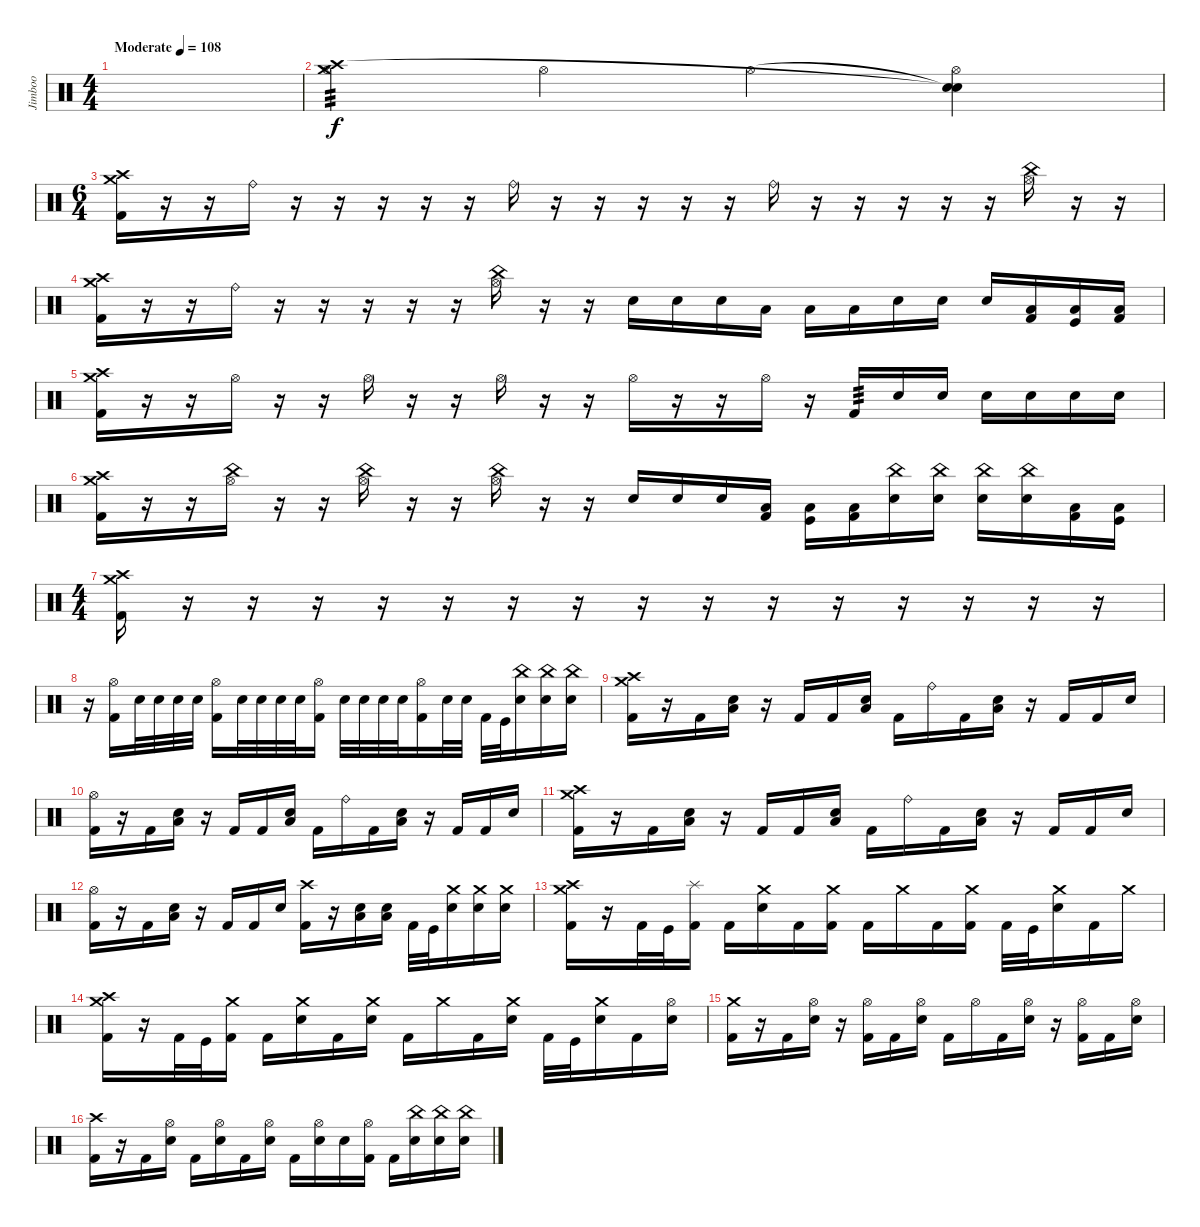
\track ("Jimboo" "Jimboo") {instrument percussion}
\staff
\articulation defaults
\ts (4 4)
\tempo (108 "Moderate")
\clef neutral
\ks c
|
("Crash medium (hit)" "Crash high (hit)" "Hi-Hat (open)").4{tp 3} "Hi-Hat (open)".4 "Hi-Hat (open)".4 ("Snare (hit)"{t} "Snare (hit)"{t} "Hi-Hat (open)").4 |
\ts (6 4)
("Kick (hit) 2" "Crash medium (hit)" "Crash high (hit)").16 r.16 r.16 "Ride (bell)".16 r.16 r.16 r.16 r.16 r.16 "Ride (bell)".16 r.16 r.16 r.16 r.16 r.16 "Ride (bell)".16 r.16 r.16 r.16 r.16 r.16 ("Hi-Hat (open)" "China (hit)").16 r.16 r.16 |
("Kick (hit) 2" "Crash medium (hit)" "Crash high (hit)").16 r.16 r.16 "Ride (bell)".16 r.16 r.16 r.16 r.16 r.16 ("Hi-Hat (open)" "China (hit)").16 r.16 r.16 "Electric Snare (hit)".16 "Electric Snare (hit)".16 "Electric Snare (hit)".16 "Low Tom (hit)".16 "Low Tom (hit)".16 "Low Tom (hit)".16 "Electric Snare (hit)".16 "Electric Snare (hit)".16 "Electric Snare (hit)".16 ("Low Floor Tom (hit)" "Kick (hit) 2").16 ("Low Floor Tom (hit)" "Kick (hit)").16 ("Low Floor Tom (hit)" "Kick (hit) 2").16 |
("Kick (hit) 2" "Crash medium (hit)" "Crash high (hit)").16 r.16 r.16 "Hi-Hat (open)".16 r.16 r.16 "Hi-Hat (open)".16 r.16 r.16 "Hi-Hat (open)".16 r.16 r.16 "Hi-Hat (open)".16 r.16 r.16 "Hi-Hat (open)".16 r.16 "Kick (hit) 2".16{tp 3} "Electric Snare (hit)".16 "Electric Snare (hit)".16 "Electric Snare (hit)".16 "Electric Snare (hit)".16 "Electric Snare (hit)".16 "Electric Snare (hit)".16 |
("Kick (hit) 2" "Crash medium (hit)" "Crash high (hit)").16 r.16 r.16 ("Hi-Hat (open)" "China (hit)").16 r.16 r.16 ("Hi-Hat (open)" "China (hit)").16 r.16 r.16 ("Hi-Hat (open)" "China (hit)").16 r.16 r.16 "Electric Snare (hit)".16 "Electric Snare (hit)".16 "Electric Snare (hit)".16 ("Low Tom (hit)" "Kick (hit) 2").16 ("Low Tom (hit)" "Kick (hit)").16 ("Low Floor Tom (hit)" "Kick (hit) 2").16 ("Electric Snare (hit)" "China (hit)").16 ("Electric Snare (hit)" "China (hit)").16 ("Electric Snare (hit)" "China (hit)").16 ("Electric Snare (hit)" "China (hit)").16 ("Low Tom (hit)" "Kick (hit) 2").16 ("Low Floor Tom (hit)" "Kick (hit)").16 |
\ts (4 4)
("Kick (hit) 2" "Crash medium (hit)" "Crash high (hit)").16 r.16 r.16 r.16 r.16 r.16 r.16 r.16 r.16 r.16 r.16 r.16 r.16 r.16 r.16 r.16 |
r.16 ("Kick (hit) 2" "Hi-Hat (open)").16 "Electric Snare (hit)".32 "Electric Snare (hit)".32 "Electric Snare (hit)".32 "Electric Snare (hit)".32 ("Kick (hit) 2" "Hi-Hat (open)").16 "Electric Snare (hit)".32 "Electric Snare (hit)".32 "Electric Snare (hit)".32 "Electric Snare (hit)".32 ("Kick (hit) 2" "Hi-Hat (open)").16 "Electric Snare (hit)".32 "Electric Snare (hit)".32 "Electric Snare (hit)".32 "Electric Snare (hit)".32 ("Kick (hit) 2" "Hi-Hat (open)").16 "Electric Snare (hit)".32 "Electric Snare (hit)".32 "Kick (hit) 2".32 "Kick (hit)".32 ("Electric Snare (hit)" "China (hit)").16 ("Electric Snare (hit)" "China (hit)").16 ("Electric Snare (hit)" "China (hit)").16 |
("Kick (hit) 2" "Crash medium (hit)" "Crash high (hit)").16 r.16 "Kick (hit) 2".16 ("Electric Snare (hit)" "Low Floor Tom (hit)").16 r.16 "Kick (hit) 2".16 "Kick (hit) 2".16 ("Electric Snare (hit)" "Low Floor Tom (hit)").16 "Kick (hit) 2".16 "Ride (bell)".16 "Kick (hit) 2".16 ("Electric Snare (hit)" "Low Floor Tom (hit)").16 r.16 "Kick (hit) 2".16 "Kick (hit) 2".16 "Electric Snare (hit)".16 |
("Kick (hit) 2" "Hi-Hat (open)").16 r.16 "Kick (hit) 2".16 ("Electric Snare (hit)" "Low Floor Tom (hit)").16 r.16 "Kick (hit) 2".16 "Kick (hit) 2".16 ("Electric Snare (hit)" "Low Floor Tom (hit)").16 "Kick (hit) 2".16 "Ride (bell)".16 "Kick (hit) 2".16 ("Electric Snare (hit)" "Low Floor Tom (hit)").16 r.16 "Kick (hit) 2".16 "Kick (hit) 2".16 "Electric Snare (hit)".16 |
("Kick (hit) 2" "Crash medium (hit)" "Crash high (hit)").16 r.16 "Kick (hit) 2".16 ("Electric Snare (hit)" "Low Floor Tom (hit)").16 r.16 "Kick (hit) 2".16 "Kick (hit) 2".16 ("Electric Snare (hit)" "Low Floor Tom (hit)").16 "Kick (hit) 2".16 "Ride (bell)".16 "Kick (hit) 2".16 ("Electric Snare (hit)" "Low Floor Tom (hit)").16 r.16 "Kick (hit) 2".16 "Kick (hit) 2".16 "Electric Snare (hit)".16 |
("Kick (hit) 2" "Hi-Hat (open)").16 r.16 "Kick (hit) 2".16 ("Electric Snare (hit)" "Low Floor Tom (hit)").16 r.16 "Kick (hit) 2".16 "Kick (hit) 2".16 "Electric Snare (hit)".16 ("Kick (hit) 2" "Crash high (hit)").16 r.16 ("Electric Snare (hit)" "Low Floor Tom (hit)").16 ("Electric Snare (hit)" "Low Floor Tom (hit)").16 "Kick (hit) 2".32 "Kick (hit)".32 ("Electric Snare (hit)" "Crash medium (hit)").16 ("Electric Snare (hit)" "Crash medium (hit)").16 ("Electric Snare (hit)" "Crash medium (hit)").16 |
("Kick (hit) 2" "Crash medium (hit)" "Crash high (hit)").16 r.16 "Kick (hit) 2".32 "Kick (hit)".32 ("Kick (hit) 2" "Splash (hit)").16 "Kick (hit) 2".16 ("Electric Snare (hit)" "Crash medium (hit)").16 "Kick (hit) 2".16 ("Kick (hit) 2" "Crash medium (hit)").16 "Kick (hit) 2".16 "Crash medium (hit)".16 "Kick (hit) 2".16 ("Kick (hit) 2" "Crash medium (hit)").16 "Kick (hit) 2".32 "Kick (hit)".32 ("Electric Snare (hit)" "Crash medium (hit)").16 "Kick (hit) 2".16 "Crash medium (hit)".16 |
("Kick (hit) 2" "Crash medium (hit)" "Crash high (hit)").16 r.16 "Kick (hit) 2".32 "Kick (hit)".32 ("Kick (hit) 2" "Crash medium (hit)").16 "Kick (hit) 2".16 ("Electric Snare (hit)" "Crash medium (hit)").16 "Kick (hit) 2".16 ("Electric Snare (hit)" "Crash medium (hit)").16 "Kick (hit) 2".16 "Crash medium (hit)".16 "Kick (hit) 2".16 ("Electric Snare (hit)" "Crash medium (hit)").16 "Kick (hit) 2".32 "Kick (hit)".32 ("Electric Snare (hit)" "Crash medium (hit)").16 "Kick (hit) 2".16 ("Electric Snare (hit)" "Hi-Hat (open)").16 |
("Kick (hit) 2" "Crash medium (hit)").16 r.16 "Kick (hit) 2".16 ("Electric Snare (hit)" "Hi-Hat (open)").16 r.16 ("Kick (hit) 2" "Hi-Hat (open)").16 "Kick (hit) 2".16 ("Electric Snare (hit)" "Hi-Hat (open)").16 "Kick (hit) 2".16 "Hi-Hat (open)".16 "Kick (hit) 2".16 ("Electric Snare (hit)" "Hi-Hat (open)").16 r.16 ("Kick (hit) 2" "Hi-Hat (open)").16 "Kick (hit) 2".16 ("Electric Snare (hit)" "Hi-Hat (open)").16 |
("Kick (hit) 2" "Crash high (hit)").16 r.16 "Kick (hit) 2".16 ("Electric Snare (hit)" "Hi-Hat (open)").16 "Kick (hit) 2".16 ("Electric Snare (hit)" "Hi-Hat (open)").16 "Kick (hit) 2".16 ("Electric Snare (hit)" "Hi-Hat (open)").16 "Kick (hit) 2".16 ("Electric Snare (hit)" "Hi-Hat (open)").16 "Electric Snare (hit)".16 ("Kick (hit) 2" "Hi-Hat (open)").16 "Kick (hit) 2".16 ("Electric Snare (hit)" "China (hit)").16 ("Electric Snare (hit)" "China (hit)").16 ("Electric Snare (hit)" "China (hit)").16
